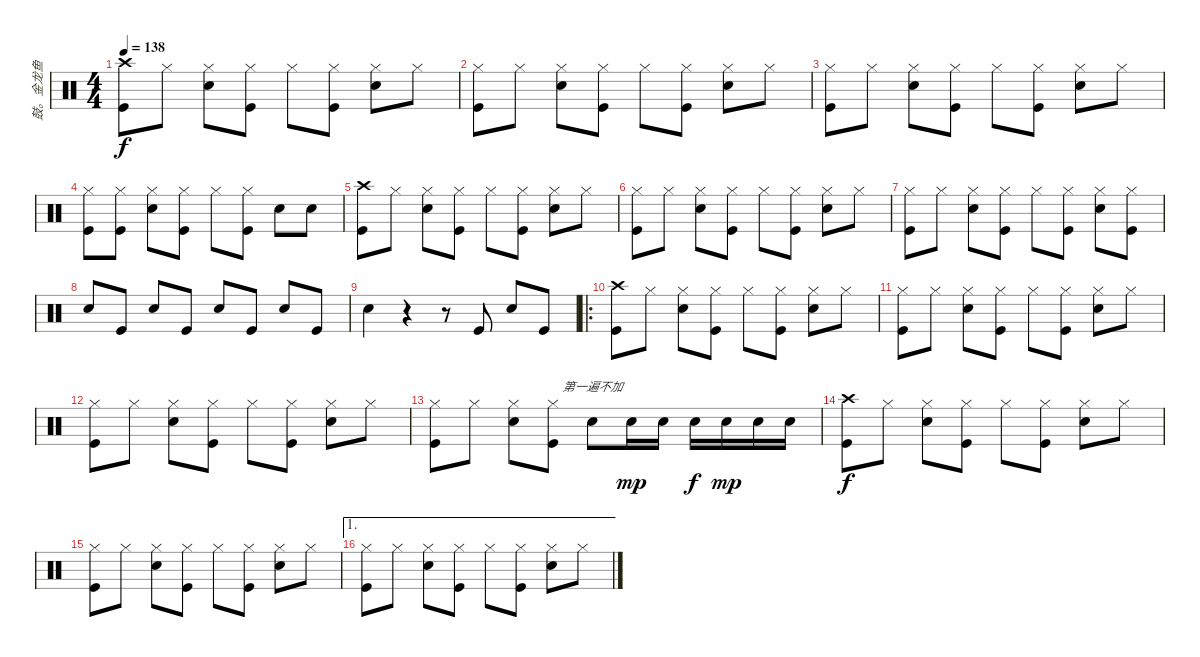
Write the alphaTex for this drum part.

\track ("鼓。金龙鱼" "鼓。金龙鱼") {instrument percussion}
\staff {score}
\articulation defaults
\chord ("第一遍不加")
\ts (4 4)
\tempo 138
\clef neutral
\ks c
("Crash high (hit)" "Kick (hit)").8{dy f} "Hi-Hat (closed)".8 ("Hi-Hat (closed)" "Snare (hit) 2").8 ("Hi-Hat (closed)" "Kick (hit)").8 "Hi-Hat (closed)".8 ("Hi-Hat (closed)" "Kick (hit)").8 ("Hi-Hat (closed)" "Snare (hit) 2").8 "Hi-Hat (closed)".8 |
("Hi-Hat (closed)" "Kick (hit)").8 "Hi-Hat (closed)".8 ("Hi-Hat (closed)" "Snare (hit) 2").8 ("Hi-Hat (closed)" "Kick (hit)").8 "Hi-Hat (closed)".8 ("Hi-Hat (closed)" "Kick (hit)").8 ("Hi-Hat (closed)" "Snare (hit) 2").8 "Hi-Hat (closed)".8 |
("Hi-Hat (closed)" "Kick (hit)").8 "Hi-Hat (closed)".8 ("Hi-Hat (closed)" "Snare (hit) 2").8 ("Hi-Hat (closed)" "Kick (hit)").8 "Hi-Hat (closed)".8 ("Hi-Hat (closed)" "Kick (hit)").8 ("Hi-Hat (closed)" "Snare (hit) 2").8 "Hi-Hat (closed)".8 |
("Hi-Hat (closed)" "Kick (hit)").8 ("Hi-Hat (closed)" "Kick (hit)").8 ("Hi-Hat (closed)" "Snare (hit) 2").8 ("Hi-Hat (closed)" "Kick (hit)").8 "Hi-Hat (closed)".8 ("Hi-Hat (closed)" "Kick (hit)").8 "Snare (hit) 2".8 "Snare (hit) 2".8 |
("Crash high (hit)" "Kick (hit)").8 "Hi-Hat (closed)".8 ("Hi-Hat (closed)" "Snare (hit) 2").8 ("Hi-Hat (closed)" "Kick (hit)").8 "Hi-Hat (closed)".8 ("Hi-Hat (closed)" "Kick (hit)").8 ("Hi-Hat (closed)" "Snare (hit) 2").8 "Hi-Hat (closed)".8 |
("Hi-Hat (closed)" "Kick (hit)").8 "Hi-Hat (closed)".8 ("Hi-Hat (closed)" "Snare (hit) 2").8 ("Hi-Hat (closed)" "Kick (hit)").8 "Hi-Hat (closed)".8 ("Hi-Hat (closed)" "Kick (hit)").8 ("Hi-Hat (closed)" "Snare (hit) 2").8 "Hi-Hat (closed)".8 |
("Hi-Hat (closed)" "Kick (hit)").8 "Hi-Hat (closed)".8 ("Hi-Hat (closed)" "Snare (hit) 2").8 ("Hi-Hat (closed)" "Kick (hit)").8 "Hi-Hat (closed)".8 ("Hi-Hat (closed)" "Kick (hit)").8 ("Hi-Hat (closed)" "Snare (hit) 2").8 ("Hi-Hat (closed)" "Kick (hit)").8 |
"Snare (hit) 2".8 "Kick (hit)".8 "Snare (hit) 2".8 "Kick (hit)".8 "Snare (hit) 2".8 "Kick (hit)".8 "Snare (hit) 2".8 "Kick (hit)".8 |
"Snare (hit) 2".4 r.4 r.8 "Kick (hit)".8 "Snare (hit) 2".8 "Kick (hit)".8 |
\ro
("Crash high (hit)" "Kick (hit)").8 "Hi-Hat (closed)".8 ("Hi-Hat (closed)" "Snare (hit) 2").8 ("Hi-Hat (closed)" "Kick (hit)").8 "Hi-Hat (closed)".8 ("Hi-Hat (closed)" "Kick (hit)").8 ("Hi-Hat (closed)" "Snare (hit) 2").8 "Hi-Hat (closed)".8 |
("Hi-Hat (closed)" "Kick (hit)").8 "Hi-Hat (closed)".8 ("Hi-Hat (closed)" "Snare (hit) 2").8 ("Hi-Hat (closed)" "Kick (hit)").8 "Hi-Hat (closed)".8 ("Hi-Hat (closed)" "Kick (hit)").8 ("Hi-Hat (closed)" "Snare (hit) 2").8 "Hi-Hat (closed)".8 |
("Hi-Hat (closed)" "Kick (hit)").8 "Hi-Hat (closed)".8 ("Hi-Hat (closed)" "Snare (hit) 2").8 ("Hi-Hat (closed)" "Kick (hit)").8 "Hi-Hat (closed)".8 ("Hi-Hat (closed)" "Kick (hit)").8 ("Hi-Hat (closed)" "Snare (hit) 2").8 "Hi-Hat (closed)".8 |
("Hi-Hat (closed)" "Kick (hit)").8 "Hi-Hat (closed)".8 ("Hi-Hat (closed)" "Snare (hit) 2").8 ("Hi-Hat (closed)" "Kick (hit)").8 "Snare (hit) 2".8{ch "第一遍不加"} "Snare (hit) 2".16{dy mp} "Snare (hit) 2".16 "Snare (hit) 2".16{dy f} "Snare (hit) 2".16{dy mp} "Snare (hit) 2".16 "Snare (hit) 2".16 |
("Crash high (hit)" "Kick (hit)").8{dy f} "Hi-Hat (closed)".8 ("Hi-Hat (closed)" "Snare (hit) 2").8 ("Hi-Hat (closed)" "Kick (hit)").8 "Hi-Hat (closed)".8 ("Hi-Hat (closed)" "Kick (hit)").8 ("Hi-Hat (closed)" "Snare (hit) 2").8 "Hi-Hat (closed)".8 |
("Hi-Hat (closed)" "Kick (hit)").8 "Hi-Hat (closed)".8 ("Hi-Hat (closed)" "Snare (hit) 2").8 ("Hi-Hat (closed)" "Kick (hit)").8 "Hi-Hat (closed)".8 ("Hi-Hat (closed)" "Kick (hit)").8 ("Hi-Hat (closed)" "Snare (hit) 2").8 "Hi-Hat (closed)".8 |
\ae 1
("Hi-Hat (closed)" "Kick (hit)").8 "Hi-Hat (closed)".8 ("Hi-Hat (closed)" "Snare (hit) 2").8 ("Hi-Hat (closed)" "Kick (hit)").8 "Hi-Hat (closed)".8 ("Hi-Hat (closed)" "Kick (hit)").8 ("Hi-Hat (closed)" "Snare (hit) 2").8 "Hi-Hat (closed)".8
